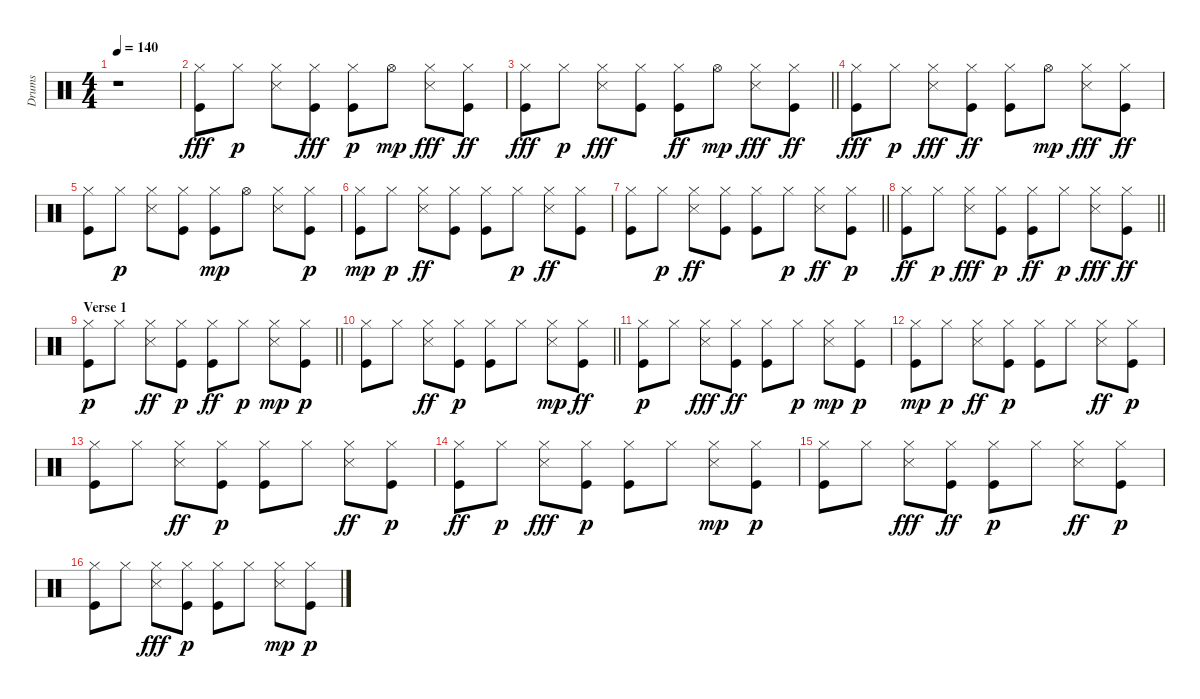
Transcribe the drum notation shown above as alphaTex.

\track ("Drums" "Drums") {instrument percussion}
\staff {score}
\articulation defaults
\ts (4 4)
\tempo 140
\clef neutral
\ks c
r.1{dy fff} |
("Hi-Hat (closed)" "Kick (hit)").8 "Hi-Hat (closed)".8{dy p} ("Snare (side stick) 3" "Hi-Hat (closed)").8 ("Hi-Hat (closed)" "Kick (hit)").8{dy fff} ("Kick (hit)" "Hi-Hat (closed)").8{dy p} "Hi-Hat (open)".8{dy mp} ("Hi-Hat (closed)" "Snare (side stick) 3").8{dy fff} ("Hi-Hat (closed)" "Kick (hit)").8{dy ff} |
\barLineRight lightlight
("Hi-Hat (closed)" "Kick (hit)").8{dy fff} "Hi-Hat (closed)".8{dy p} ("Hi-Hat (closed)" "Snare (side stick) 3").8{dy fff} ("Hi-Hat (closed)" "Kick (hit)").8 ("Hi-Hat (closed)" "Kick (hit)").8{dy ff} "Hi-Hat (open)".8{dy mp} ("Hi-Hat (closed)" "Snare (side stick) 3").8{dy fff} ("Hi-Hat (closed)" "Kick (hit)").8{dy ff} |
\section ("" "")
("Hi-Hat (closed)" "Kick (hit)").8{dy fff} "Hi-Hat (closed)".8{dy p} ("Hi-Hat (closed)" "Snare (side stick) 3").8{dy fff} ("Hi-Hat (closed)" "Kick (hit)").8{dy ff} ("Hi-Hat (closed)" "Kick (hit)").8 "Hi-Hat (open)".8{dy mp} ("Hi-Hat (closed)" "Snare (side stick) 3").8{dy fff} ("Hi-Hat (closed)" "Kick (hit)").8{dy ff} |
("Hi-Hat (closed)" "Kick (hit)").8 "Hi-Hat (closed)".8{dy p} ("Snare (side stick) 3" "Hi-Hat (closed)").8 ("Kick (hit)" "Hi-Hat (closed)").8 ("Kick (hit)" "Hi-Hat (closed)").8{dy mp} "Hi-Hat (open)".8 ("Snare (side stick) 3" "Hi-Hat (closed)").8 ("Kick (hit)" "Hi-Hat (closed)").8{dy p} |
("Kick (hit)" "Hi-Hat (closed)").8{dy mp} "Hi-Hat (closed)".8{dy p} ("Hi-Hat (closed)" "Snare (side stick) 3").8{dy ff} ("Hi-Hat (closed)" "Kick (hit)").8 ("Hi-Hat (closed)" "Kick (hit)").8 "Hi-Hat (closed)".8{dy p} ("Hi-Hat (closed)" "Snare (side stick) 3").8{dy ff} ("Hi-Hat (closed)" "Kick (hit)").8 |
\barLineRight lightlight
("Hi-Hat (closed)" "Kick (hit)").8 "Hi-Hat (closed)".8{dy p} ("Hi-Hat (closed)" "Snare (side stick) 3").8{dy ff} ("Hi-Hat (closed)" "Kick (hit)").8 ("Hi-Hat (closed)" "Kick (hit)").8 "Hi-Hat (closed)".8{dy p} ("Hi-Hat (closed)" "Snare (side stick) 3").8{dy ff} ("Hi-Hat (closed)" "Kick (hit)").8{dy p} |
\section ("" "")
\barLineRight lightlight
("Hi-Hat (closed)" "Kick (hit)").8{dy ff} "Hi-Hat (closed)".8{dy p} ("Hi-Hat (closed)" "Snare (side stick) 3").8{dy fff} ("Hi-Hat (closed)" "Kick (hit)").8{dy p} ("Hi-Hat (closed)" "Kick (hit)").8{dy ff} "Hi-Hat (closed)".8{dy p} ("Hi-Hat (closed)" "Snare (side stick) 3").8{dy fff} ("Hi-Hat (closed)" "Kick (hit)").8{dy ff} |
\section ("" "Verse 1")
\barLineRight lightlight
("Hi-Hat (closed)" "Kick (hit)").8{dy p} "Hi-Hat (closed)".8 ("Hi-Hat (closed)" "Snare (side stick) 3").8{dy ff} ("Hi-Hat (closed)" "Kick (hit)").8{dy p} ("Hi-Hat (closed)" "Kick (hit)").8{dy ff} "Hi-Hat (closed)".8{dy p} ("Snare (side stick) 3" "Hi-Hat (closed)").8{dy mp} ("Kick (hit)" "Hi-Hat (closed)").8{dy p} |
\section ("" "")
\barLineRight lightlight
("Kick (hit)" "Hi-Hat (closed)").8 "Hi-Hat (closed)".8 ("Hi-Hat (closed)" "Snare (side stick) 3").8{dy ff} ("Kick (hit)" "Hi-Hat (closed)").8{dy p} ("Kick (hit)" "Hi-Hat (closed)").8 "Hi-Hat (closed)".8 ("Snare (side stick) 3" "Hi-Hat (closed)").8{dy mp} ("Hi-Hat (closed)" "Kick (hit)").8{dy ff} |
\section ("" "")
("Hi-Hat (closed)" "Kick (hit)").8{dy p} "Hi-Hat (closed)".8 ("Hi-Hat (closed)" "Snare (side stick) 3").8{dy fff} ("Hi-Hat (closed)" "Kick (hit)").8{dy ff} ("Hi-Hat (closed)" "Kick (hit)").8 "Hi-Hat (closed)".8{dy p} ("Snare (side stick) 3" "Hi-Hat (closed)").8{dy mp} ("Kick (hit)" "Hi-Hat (closed)").8{dy p} |
("Kick (hit)" "Hi-Hat (closed)").8{dy mp} "Hi-Hat (closed)".8{dy p} ("Hi-Hat (closed)" "Snare (side stick) 3").8{dy ff} ("Hi-Hat (closed)" "Kick (hit)").8{dy p} ("Hi-Hat (closed)" "Kick (hit)").8 "Hi-Hat (closed)".8 ("Hi-Hat (closed)" "Snare (side stick) 3").8{dy ff} ("Hi-Hat (closed)" "Kick (hit)").8{dy p} |
("Hi-Hat (closed)" "Kick (hit)").8 "Hi-Hat (closed)".8 ("Hi-Hat (closed)" "Snare (side stick) 3").8{dy ff} ("Kick (hit)" "Hi-Hat (closed)").8{dy p} ("Kick (hit)" "Hi-Hat (closed)").8 "Hi-Hat (closed)".8 ("Hi-Hat (closed)" "Snare (side stick) 3").8{dy ff} ("Hi-Hat (closed)" "Kick (hit)").8{dy p} |
("Hi-Hat (closed)" "Kick (hit)").8{dy ff} "Hi-Hat (closed)".8{dy p} ("Hi-Hat (closed)" "Snare (side stick) 3").8{dy fff} ("Hi-Hat (closed)" "Kick (hit)").8{dy p} ("Hi-Hat (closed)" "Kick (hit)").8 "Hi-Hat (closed)".8 ("Snare (side stick) 3" "Hi-Hat (closed)").8{dy mp} ("Hi-Hat (closed)" "Kick (hit)").8{dy p} |
("Hi-Hat (closed)" "Kick (hit)").8 "Hi-Hat (closed)".8 ("Hi-Hat (closed)" "Snare (side stick) 3").8{dy fff} ("Hi-Hat (closed)" "Kick (hit)").8{dy ff} ("Hi-Hat (closed)" "Kick (hit)").8{dy p} "Hi-Hat (closed)".8 ("Hi-Hat (closed)" "Snare (side stick) 3").8{dy ff} ("Hi-Hat (closed)" "Kick (hit)").8{dy p} |
("Hi-Hat (closed)" "Kick (hit)").8 "Hi-Hat (closed)".8 ("Hi-Hat (closed)" "Snare (side stick) 3").8{dy fff} ("Hi-Hat (closed)" "Kick (hit)").8{dy p} ("Kick (hit)" "Hi-Hat (closed)").8 "Hi-Hat (closed)".8 ("Snare (side stick) 3" "Hi-Hat (closed)").8{dy mp} ("Hi-Hat (closed)" "Kick (hit)").8{dy p}
